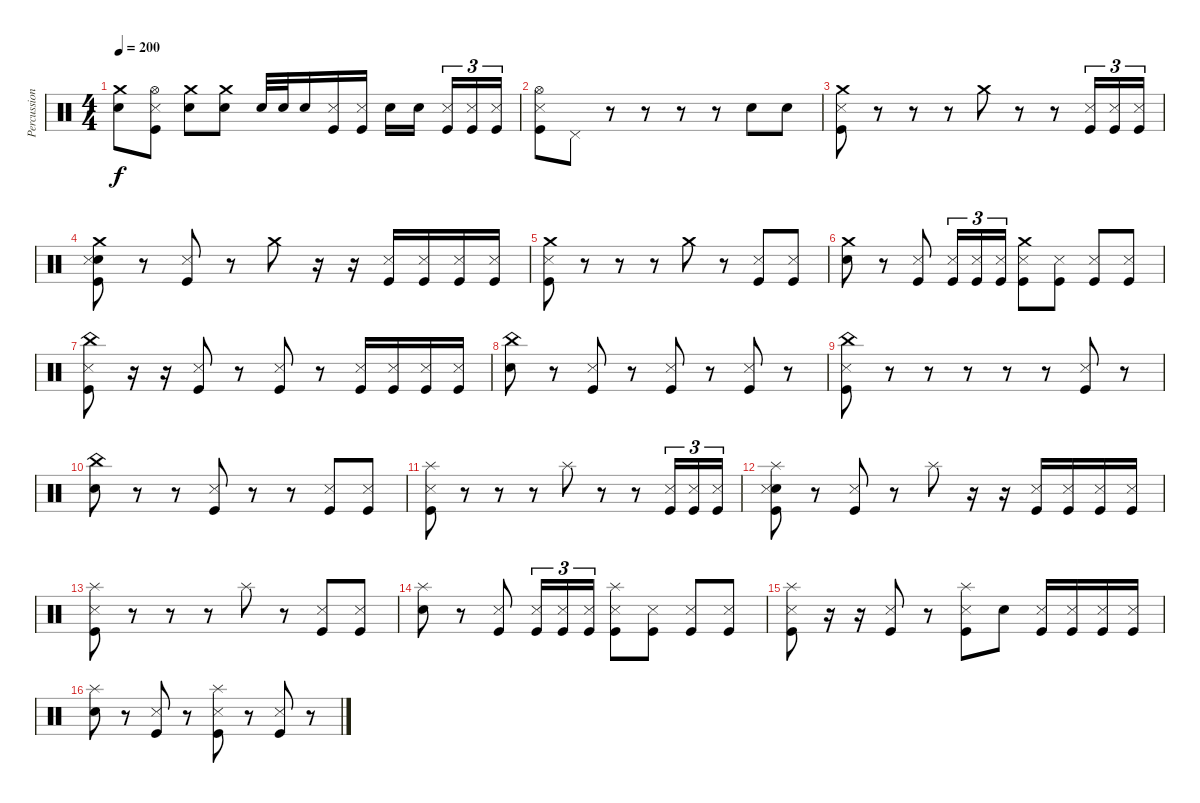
\track ("Percussion" "Percussion") {instrument percussion}
\staff {score}
\articulation defaults
\ts (4 4)
\tempo 200
\clef neutral
\ks c
("Crash medium (hit)" "Electric Snare (hit)").8{dy f} ("Hi-Hat (open)" "Metronome (hit)" "Kick (hit)").8 ("Crash medium (hit)" "Electric Snare (hit)").8 ("Crash medium (hit)" "Electric Snare (hit)").8 "Electric Snare (hit)".32 "Electric Snare (hit)".32 "Electric Snare (hit)".16 ("Metronome (hit)" "Kick (hit)").16 ("Metronome (hit)" "Kick (hit)").16 "Electric Snare (hit)".16 "Electric Snare (hit)".16{beam splitsecondary} ("Metronome (hit)" "Kick (hit)").16{tu (3 2)} ("Metronome (hit)" "Kick (hit)").16{tu (3 2)} ("Metronome (hit)" "Kick (hit)").16{tu (3 2)} |
("Hi-Hat (open)" "Metronome (hit)" "Kick (hit)").8 "Pedal Hi-Hat (hit)".8 r.8 r.8 r.8 r.8 "Electric Snare (hit)".8 "Electric Snare (hit)".8 |
("Crash medium (hit)" "Metronome (hit)" "Kick (hit)").8 r.8 r.8 r.8 "Crash medium (hit)".8 r.8 r.8 ("Metronome (hit)" "Kick (hit)").16{tu (3 2)} ("Metronome (hit)" "Kick (hit)").16{tu (3 2)} ("Metronome (hit)" "Kick (hit)").16{tu (3 2)} |
("Crash medium (hit)" "Electric Snare (hit)" "Metronome (hit)" "Kick (hit)").8 r.8 ("Metronome (hit)" "Kick (hit)").8 r.8 "Crash medium (hit)".8 r.16 r.16 ("Metronome (hit)" "Kick (hit)").16 ("Metronome (hit)" "Kick (hit)").16 ("Metronome (hit)" "Kick (hit)").16 ("Metronome (hit)" "Kick (hit)").16 |
("Crash medium (hit)" "Metronome (hit)" "Kick (hit)").8 r.8 r.8 r.8 "Crash medium (hit)".8 r.8 ("Metronome (hit)" "Kick (hit)").8 ("Metronome (hit)" "Kick (hit)").8 |
("Crash medium (hit)" "Electric Snare (hit)").8 r.8 ("Metronome (hit)" "Kick (hit)").8 ("Metronome (hit)" "Kick (hit)").16{tu (3 2)} ("Metronome (hit)" "Kick (hit)").16{tu (3 2)} ("Metronome (hit)" "Kick (hit)").16{tu (3 2)} ("Crash medium (hit)" "Metronome (hit)" "Kick (hit)").8 ("Metronome (hit)" "Kick (hit)").8 ("Metronome (hit)" "Kick (hit)").8 ("Metronome (hit)" "Kick (hit)").8 |
("China (hit)" "Metronome (hit)" "Kick (hit)").8 r.16 r.16 ("Metronome (hit)" "Kick (hit)").8 r.8 ("Metronome (hit)" "Kick (hit)").8 r.8 ("Metronome (hit)" "Kick (hit)").16 ("Metronome (hit)" "Kick (hit)").16 ("Metronome (hit)" "Kick (hit)").16 ("Metronome (hit)" "Kick (hit)").16 |
("China (hit)" "Electric Snare (hit)").8 r.8 ("Metronome (hit)" "Kick (hit)").8 r.8 ("Metronome (hit)" "Kick (hit)").8 r.8 ("Metronome (hit)" "Kick (hit)").8 r.8 |
("China (hit)" "Metronome (hit)" "Kick (hit)").8 r.8 r.8 r.8 r.8 r.8 ("Kick (hit)" "Metronome (hit)").8 r.8 |
("China (hit)" "Electric Snare (hit)").8 r.8 r.8 ("Metronome (hit)" "Kick (hit)").8 r.8 r.8 ("Metronome (hit)" "Kick (hit)").8 ("Metronome (hit)" "Kick (hit)").8 |
("Splash (hit)" "Metronome (hit)" "Kick (hit)").8 r.8 r.8 r.8 "Splash (hit)".8 r.8 r.8 ("Metronome (hit)" "Kick (hit)").16{tu (3 2)} ("Metronome (hit)" "Kick (hit)").16{tu (3 2)} ("Metronome (hit)" "Kick (hit)").16{tu (3 2)} |
("Splash (hit)" "Electric Snare (hit)" "Metronome (hit)" "Kick (hit)").8 r.8 ("Metronome (hit)" "Kick (hit)").8 r.8 "Splash (hit)".8 r.16 r.16 ("Metronome (hit)" "Kick (hit)").16 ("Metronome (hit)" "Kick (hit)").16 ("Metronome (hit)" "Kick (hit)").16 ("Metronome (hit)" "Kick (hit)").16 |
("Splash (hit)" "Metronome (hit)" "Kick (hit)").8 r.8 r.8 r.8 "Splash (hit)".8 r.8 ("Metronome (hit)" "Kick (hit)").8 ("Metronome (hit)" "Kick (hit)").8 |
("Splash (hit)" "Electric Snare (hit)").8 r.8 ("Metronome (hit)" "Kick (hit)").8 ("Metronome (hit)" "Kick (hit)").16{tu (3 2)} ("Metronome (hit)" "Kick (hit)").16{tu (3 2)} ("Metronome (hit)" "Kick (hit)").16{tu (3 2)} ("Splash (hit)" "Metronome (hit)" "Kick (hit)").8 ("Metronome (hit)" "Kick (hit)").8 ("Metronome (hit)" "Kick (hit)").8 ("Metronome (hit)" "Kick (hit)").8 |
("Splash (hit)" "Metronome (hit)" "Kick (hit)").8 r.16 r.16 ("Metronome (hit)" "Kick (hit)").8 r.8 ("Splash (hit)" "Metronome (hit)" "Kick (hit)").8 "Electric Snare (hit)".8 ("Metronome (hit)" "Kick (hit)").16 ("Metronome (hit)" "Kick (hit)").16 ("Metronome (hit)" "Kick (hit)").16 ("Metronome (hit)" "Kick (hit)").16 |
("Splash (hit)" "Electric Snare (hit)").8 r.8 ("Metronome (hit)" "Kick (hit)").8 r.8 ("Splash (hit)" "Metronome (hit)" "Kick (hit)").8 r.8 ("Metronome (hit)" "Kick (hit)").8 r.8
